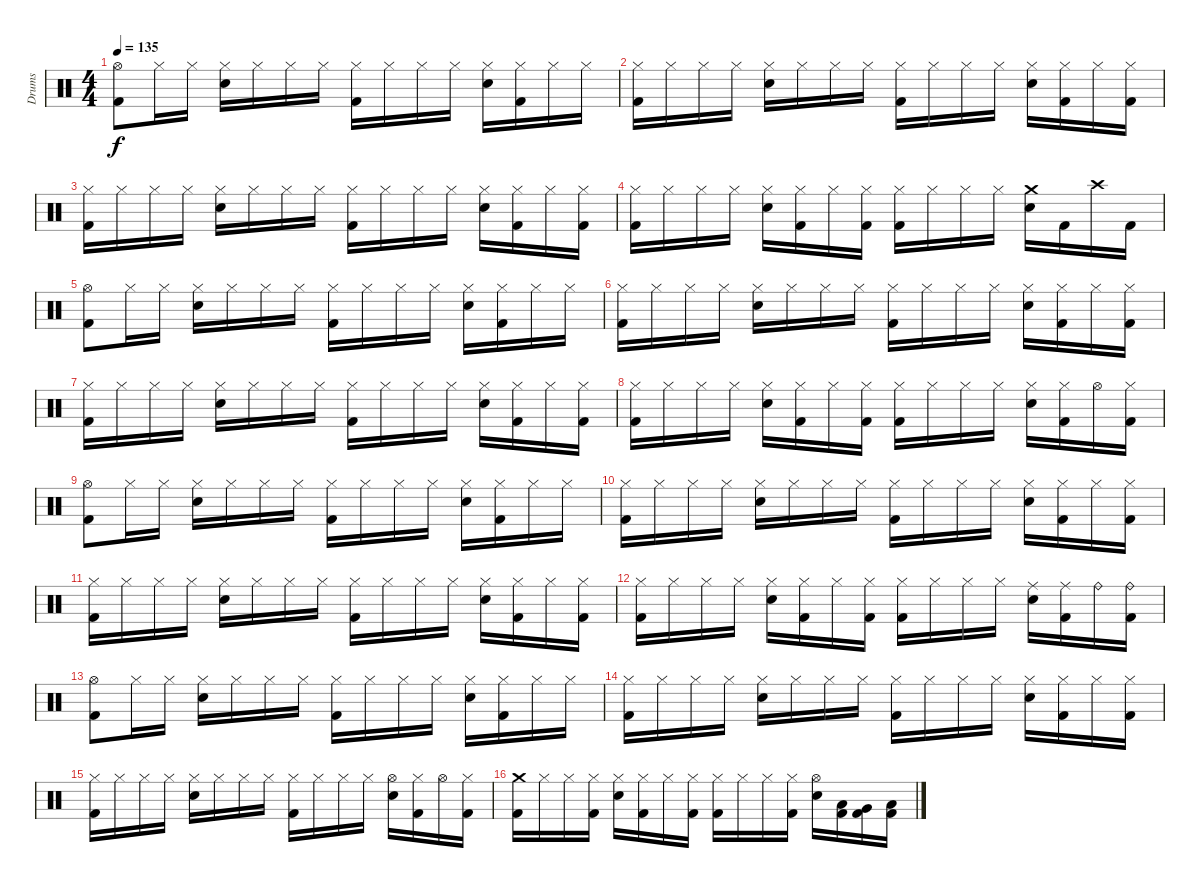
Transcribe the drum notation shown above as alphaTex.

\track ("Drums" "Drums") {instrument percussion}
\staff {score}
\articulation defaults
\ts (4 4)
\tempo 135
\clef neutral
\ks c
("Hi-Hat (open)" "Kick (hit) 2").8{dy f} "Hi-Hat (closed)".16 "Hi-Hat (closed)".16 ("Hi-Hat (closed)" "Electric Snare (hit)").16 "Hi-Hat (closed)".16 "Hi-Hat (closed)".16 "Hi-Hat (closed)".16 ("Hi-Hat (closed)" "Kick (hit) 2").16 "Hi-Hat (closed)".16 "Hi-Hat (closed)".16 "Hi-Hat (closed)".16 ("Hi-Hat (closed)" "Electric Snare (hit)").16 ("Hi-Hat (closed)" "Kick (hit) 2").16 "Hi-Hat (closed)".16 "Hi-Hat (closed)".16 |
("Hi-Hat (closed)" "Kick (hit) 2").16 "Hi-Hat (closed)".16 "Hi-Hat (closed)".16 "Hi-Hat (closed)".16 ("Hi-Hat (closed)" "Electric Snare (hit)").16 "Hi-Hat (closed)".16 "Hi-Hat (closed)".16 "Hi-Hat (closed)".16 ("Hi-Hat (closed)" "Kick (hit) 2").16 "Hi-Hat (closed)".16 "Hi-Hat (closed)".16 "Hi-Hat (closed)".16 ("Hi-Hat (closed)" "Electric Snare (hit)").16 ("Hi-Hat (closed)" "Kick (hit) 2").16 "Hi-Hat (closed)".16 ("Hi-Hat (closed)" "Kick (hit) 2").16 |
("Hi-Hat (closed)" "Kick (hit) 2").16 "Hi-Hat (closed)".16 "Hi-Hat (closed)".16 "Hi-Hat (closed)".16 ("Hi-Hat (closed)" "Electric Snare (hit)").16 "Hi-Hat (closed)".16 "Hi-Hat (closed)".16 "Hi-Hat (closed)".16 ("Hi-Hat (closed)" "Kick (hit) 2").16 "Hi-Hat (closed)".16 "Hi-Hat (closed)".16 "Hi-Hat (closed)".16 ("Hi-Hat (closed)" "Electric Snare (hit)").16 ("Hi-Hat (closed)" "Kick (hit) 2").16 "Hi-Hat (closed)".16 ("Hi-Hat (closed)" "Kick (hit) 2").16 |
("Hi-Hat (closed)" "Kick (hit) 2").16 "Hi-Hat (closed)".16 "Hi-Hat (closed)".16 "Hi-Hat (closed)".16 ("Hi-Hat (closed)" "Electric Snare (hit)").16 ("Hi-Hat (closed)" "Kick (hit) 2").16 "Hi-Hat (closed)".16 ("Hi-Hat (closed)" "Kick (hit) 2").16 ("Hi-Hat (closed)" "Kick (hit) 2").16 "Hi-Hat (closed)".16 "Hi-Hat (closed)".16 "Hi-Hat (closed)".16 ("Crash medium (hit)" "Electric Snare (hit)").16 "Kick (hit) 2".16 "Crash high (hit)".16 "Kick (hit) 2".16 |
("Hi-Hat (open)" "Kick (hit) 2").8 "Hi-Hat (closed)".16 "Hi-Hat (closed)".16 ("Hi-Hat (closed)" "Electric Snare (hit)").16 "Hi-Hat (closed)".16 "Hi-Hat (closed)".16 "Hi-Hat (closed)".16 ("Hi-Hat (closed)" "Kick (hit) 2").16 "Hi-Hat (closed)".16 "Hi-Hat (closed)".16 "Hi-Hat (closed)".16 ("Hi-Hat (closed)" "Electric Snare (hit)").16 ("Hi-Hat (closed)" "Kick (hit) 2").16 "Hi-Hat (closed)".16 "Hi-Hat (closed)".16 |
("Hi-Hat (closed)" "Kick (hit) 2").16 "Hi-Hat (closed)".16 "Hi-Hat (closed)".16 "Hi-Hat (closed)".16 ("Hi-Hat (closed)" "Electric Snare (hit)").16 "Hi-Hat (closed)".16 "Hi-Hat (closed)".16 "Hi-Hat (closed)".16 ("Hi-Hat (closed)" "Kick (hit) 2").16 "Hi-Hat (closed)".16 "Hi-Hat (closed)".16 "Hi-Hat (closed)".16 ("Hi-Hat (closed)" "Electric Snare (hit)").16 ("Hi-Hat (closed)" "Kick (hit) 2").16 "Hi-Hat (closed)".16 ("Hi-Hat (closed)" "Kick (hit) 2").16 |
("Hi-Hat (closed)" "Kick (hit) 2").16 "Hi-Hat (closed)".16 "Hi-Hat (closed)".16 "Hi-Hat (closed)".16 ("Hi-Hat (closed)" "Electric Snare (hit)").16 "Hi-Hat (closed)".16 "Hi-Hat (closed)".16 "Hi-Hat (closed)".16 ("Hi-Hat (closed)" "Kick (hit) 2").16 "Hi-Hat (closed)".16 "Hi-Hat (closed)".16 "Hi-Hat (closed)".16 ("Hi-Hat (closed)" "Electric Snare (hit)").16 ("Hi-Hat (closed)" "Kick (hit) 2").16 "Hi-Hat (closed)".16 ("Hi-Hat (closed)" "Kick (hit) 2").16 |
("Hi-Hat (closed)" "Kick (hit) 2").16 "Hi-Hat (closed)".16 "Hi-Hat (closed)".16 "Hi-Hat (closed)".16 ("Hi-Hat (closed)" "Electric Snare (hit)").16 ("Hi-Hat (closed)" "Kick (hit) 2").16 "Hi-Hat (closed)".16 ("Hi-Hat (closed)" "Kick (hit) 2").16 ("Hi-Hat (closed)" "Kick (hit) 2").16 "Hi-Hat (closed)".16 "Hi-Hat (closed)".16 "Hi-Hat (closed)".16 ("Hi-Hat (closed)" "Electric Snare (hit)").16 ("Hi-Hat (closed)" "Kick (hit) 2").16 "Hi-Hat (open)".16 ("Hi-Hat (closed)" "Kick (hit) 2").16 |
("Hi-Hat (open)" "Kick (hit) 2").8 "Hi-Hat (closed)".16 "Hi-Hat (closed)".16 ("Hi-Hat (closed)" "Electric Snare (hit)").16 "Hi-Hat (closed)".16 "Hi-Hat (closed)".16 "Hi-Hat (closed)".16 ("Hi-Hat (closed)" "Kick (hit) 2").16 "Hi-Hat (closed)".16 "Hi-Hat (closed)".16 "Hi-Hat (closed)".16 ("Hi-Hat (closed)" "Electric Snare (hit)").16 ("Hi-Hat (closed)" "Kick (hit) 2").16 "Hi-Hat (closed)".16 "Hi-Hat (closed)".16 |
("Hi-Hat (closed)" "Kick (hit) 2").16 "Hi-Hat (closed)".16 "Hi-Hat (closed)".16 "Hi-Hat (closed)".16 ("Hi-Hat (closed)" "Electric Snare (hit)").16 "Hi-Hat (closed)".16 "Hi-Hat (closed)".16 "Hi-Hat (closed)".16 ("Hi-Hat (closed)" "Kick (hit) 2").16 "Hi-Hat (closed)".16 "Hi-Hat (closed)".16 "Hi-Hat (closed)".16 ("Hi-Hat (closed)" "Electric Snare (hit)").16 ("Hi-Hat (closed)" "Kick (hit) 2").16 "Hi-Hat (closed)".16 ("Hi-Hat (closed)" "Kick (hit) 2").16 |
("Hi-Hat (closed)" "Kick (hit) 2").16 "Hi-Hat (closed)".16 "Hi-Hat (closed)".16 "Hi-Hat (closed)".16 ("Hi-Hat (closed)" "Electric Snare (hit)").16 "Hi-Hat (closed)".16 "Hi-Hat (closed)".16 "Hi-Hat (closed)".16 ("Hi-Hat (closed)" "Kick (hit) 2").16 "Hi-Hat (closed)".16 "Hi-Hat (closed)".16 "Hi-Hat (closed)".16 ("Hi-Hat (closed)" "Electric Snare (hit)").16 ("Hi-Hat (closed)" "Kick (hit) 2").16 "Hi-Hat (closed)".16 ("Hi-Hat (closed)" "Kick (hit) 2").16 |
("Hi-Hat (closed)" "Kick (hit) 2").16 "Hi-Hat (closed)".16 "Hi-Hat (closed)".16 "Hi-Hat (closed)".16 ("Hi-Hat (closed)" "Electric Snare (hit)").16 ("Hi-Hat (closed)" "Kick (hit) 2").16 "Hi-Hat (closed)".16 ("Hi-Hat (closed)" "Kick (hit) 2").16 ("Hi-Hat (closed)" "Kick (hit) 2").16 "Hi-Hat (closed)".16 "Hi-Hat (closed)".16 "Hi-Hat (closed)".16 ("Ride (middle)" "Electric Snare (hit)").16 ("Ride (middle)" "Kick (hit) 2").16 "Ride (bell)".16 ("Ride (bell)" "Kick (hit) 2").16 |
("Hi-Hat (open)" "Kick (hit) 2").8 "Hi-Hat (closed)".16 "Hi-Hat (closed)".16 ("Hi-Hat (closed)" "Electric Snare (hit)").16 "Hi-Hat (closed)".16 "Hi-Hat (closed)".16 "Hi-Hat (closed)".16 ("Hi-Hat (closed)" "Kick (hit) 2").16 "Hi-Hat (closed)".16 "Hi-Hat (closed)".16 "Hi-Hat (closed)".16 ("Hi-Hat (closed)" "Electric Snare (hit)").16 ("Hi-Hat (closed)" "Kick (hit) 2").16 "Hi-Hat (closed)".16 "Hi-Hat (closed)".16 |
("Hi-Hat (closed)" "Kick (hit) 2").16 "Hi-Hat (closed)".16 "Hi-Hat (closed)".16 "Hi-Hat (closed)".16 ("Hi-Hat (closed)" "Electric Snare (hit)").16 "Hi-Hat (closed)".16 "Hi-Hat (closed)".16 "Hi-Hat (closed)".16 ("Hi-Hat (closed)" "Kick (hit) 2").16 "Hi-Hat (closed)".16 "Hi-Hat (closed)".16 "Hi-Hat (closed)".16 ("Hi-Hat (closed)" "Electric Snare (hit)").16 ("Hi-Hat (closed)" "Kick (hit) 2").16 "Hi-Hat (closed)".16 ("Hi-Hat (closed)" "Kick (hit) 2").16 |
("Hi-Hat (closed)" "Kick (hit) 2").16 "Hi-Hat (closed)".16 "Hi-Hat (closed)".16 "Hi-Hat (closed)".16 ("Hi-Hat (closed)" "Electric Snare (hit)").16 "Hi-Hat (closed)".16 "Hi-Hat (closed)".16 "Hi-Hat (closed)".16 ("Hi-Hat (closed)" "Kick (hit) 2").16 "Hi-Hat (closed)".16 "Hi-Hat (closed)".16 "Hi-Hat (closed)".16 ("Hi-Hat (open)" "Electric Snare (hit)").16 ("Hi-Hat (closed)" "Kick (hit) 2").16 "Hi-Hat (open)".16 ("Hi-Hat (closed)" "Kick (hit) 2").16 |
("Crash medium (hit)" "Kick (hit) 2").16 "Hi-Hat (closed)".16 "Hi-Hat (closed)".16 ("Hi-Hat (closed)" "Kick (hit) 2").16 ("Hi-Hat (closed)" "Electric Snare (hit)").16 ("Hi-Hat (closed)" "Kick (hit) 2").16 "Hi-Hat (closed)".16 ("Hi-Hat (closed)" "Kick (hit) 2").16 ("Hi-Hat (closed)" "Kick (hit) 2").16 "Hi-Hat (closed)".16 "Hi-Hat (closed)".16 ("Hi-Hat (closed)" "Kick (hit) 2").16 ("Hi-Hat (open)" "Electric Snare (hit)").16 ("Low Tom (hit)" "Kick (hit) 2").16 ("Very Low Tom (hit)" "Kick (hit) 2").16 ("Low Floor Tom (hit)" "Kick (hit) 2").16
